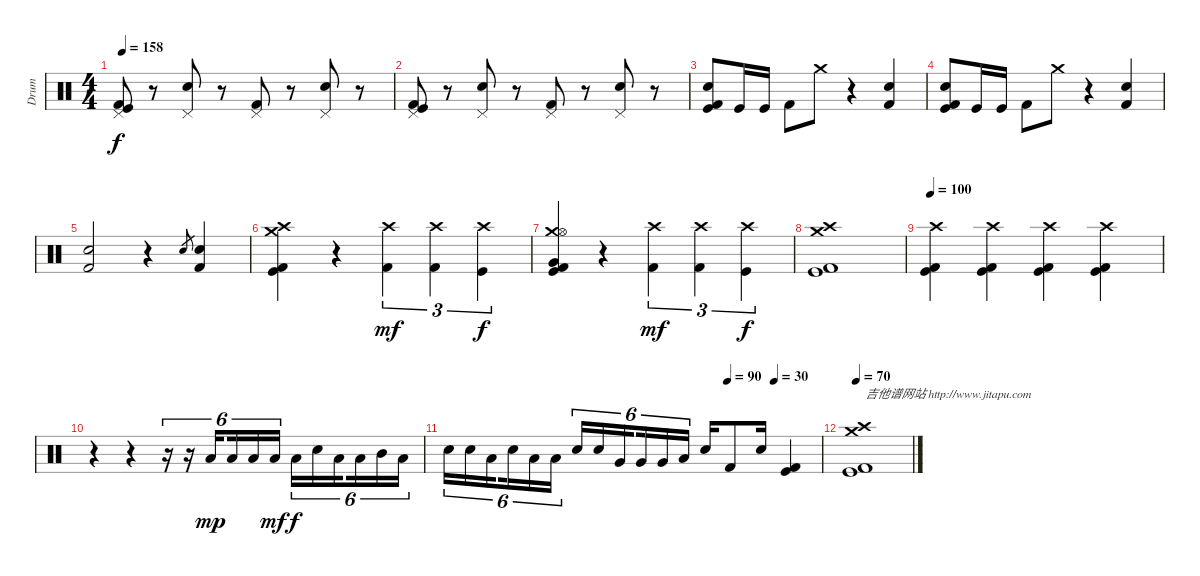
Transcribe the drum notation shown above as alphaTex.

\track ("Drum" "Drum") {instrument percussion}
\staff {score}
\articulation defaults
\ts (4 4)
\tempo 158
\clef neutral
\ks c
("Pedal Hi-Hat (hit)" "Kick (hit) 2" "Kick (hit)").8{dy f} r.8 ("Electric Snare (hit)" "Pedal Hi-Hat (hit)").8 r.8 ("Pedal Hi-Hat (hit)" "Kick (hit) 2").8 r.8 ("Electric Snare (hit)" "Pedal Hi-Hat (hit)").8 r.8 |
("Pedal Hi-Hat (hit)" "Kick (hit) 2" "Kick (hit)").8 r.8 ("Electric Snare (hit)" "Pedal Hi-Hat (hit)").8 r.8 ("Pedal Hi-Hat (hit)" "Kick (hit) 2").8 r.8 ("Electric Snare (hit)" "Pedal Hi-Hat (hit)").8 r.8 |
("Electric Snare (hit)" "Kick (hit) 2" "Kick (hit)").8 "Kick (hit)".16 "Kick (hit)".16 "Kick (hit) 2".8 "Crash medium (hit)".8 r.4 ("Kick (hit) 2" "Electric Snare (hit)").4 |
("Electric Snare (hit)" "Kick (hit) 2" "Kick (hit)").8 "Kick (hit)".16 "Kick (hit)".16 "Kick (hit) 2".8 "Crash medium (hit)".8 r.4 ("Kick (hit) 2" "Electric Snare (hit)").4 |
("Kick (hit) 2" "Electric Snare (hit)").2 r.4 "Electric Snare (hit)".8{gr} ("Kick (hit) 2" "Electric Snare (hit)").4 |
("Crash high (hit)" "Crash medium (hit)" "Kick (hit) 2" "Kick (hit)").4 r.4 ("Crash high (hit)" "Kick (hit) 2").4{tu (3 2) dy mf} ("Crash high (hit)" "Kick (hit) 2").4{tu (3 2)} ("Crash high (hit)" "Kick (hit)").4{tu (3 2) dy f} |
("Crash medium (hit)" "Hi-Hat (open)" "Very Low Tom (hit)" "Kick (hit)" "Kick (hit) 2").4 r.4 ("Crash high (hit)" "Kick (hit) 2").4{tu (3 2) dy mf} ("Crash high (hit)" "Kick (hit) 2").4{tu (3 2)} ("Crash high (hit)" "Kick (hit)").4{tu (3 2) dy f} |
("Crash high (hit)" "Crash medium (hit)" "Kick (hit) 2" "Kick (hit)").1 |
\tempo 100
("Crash high (hit)" "Kick (hit) 2" "Kick (hit)").4 ("Crash high (hit)" "Kick (hit) 2" "Kick (hit)").4 ("Crash high (hit)" "Kick (hit) 2" "Kick (hit)").4 ("Crash high (hit)" "Kick (hit) 2" "Kick (hit)").4 |
r.4 r.4 r.16{tu (6 4)} r.16{tu (6 4)} "Low Tom (hit)".16{tu (6 4) dy mp beam splitsecondary} "Low Tom (hit)".16{tu (6 4)} "Low Tom (hit)".16{tu (6 4)} "Low Tom (hit)".16{tu (6 4) dy mf} "Low Tom (hit)".16{tu (6 4) dy f} "Electric Snare (hit)".16{tu (6 4)} "Low Tom (hit)".16{tu (6 4) beam splitsecondary} "Low Tom (hit)".16{tu (6 4)} "Mid Tom (hit)".16{tu (6 4)} "Low Tom (hit)".16{tu (6 4)} |
\tempo (30 0.875)
\tempo (90 0.75)
"Electric Snare (hit)".16{tu (6 4)} "Electric Snare (hit)".16{tu (6 4)} "Low Tom (hit)".16{tu (6 4) beam splitsecondary} "Electric Snare (hit)".16{tu (6 4)} "Low Tom (hit)".16{tu (6 4)} "Low Tom (hit)".16{tu (6 4)} "Electric Snare (hit)".16{tu (6 4)} "Electric Snare (hit)".16{tu (6 4)} "Very Low Tom (hit)".16{tu (6 4) beam splitsecondary} "Very Low Tom (hit)".16{tu (6 4)} "Very Low Tom (hit)".16{tu (6 4)} "Low Tom (hit)".16{tu (6 4)} "Electric Snare (hit)".16 "Kick (hit) 2".8 "Electric Snare (hit)".16 ("Kick (hit)" "Kick (hit) 2").4 |
\tempo 70
("Kick (hit)" "Crash high (hit)" "Crash medium (hit)" "Kick (hit) 2").1{txt "吉他谱网站 http://www.jitapu.com"}
